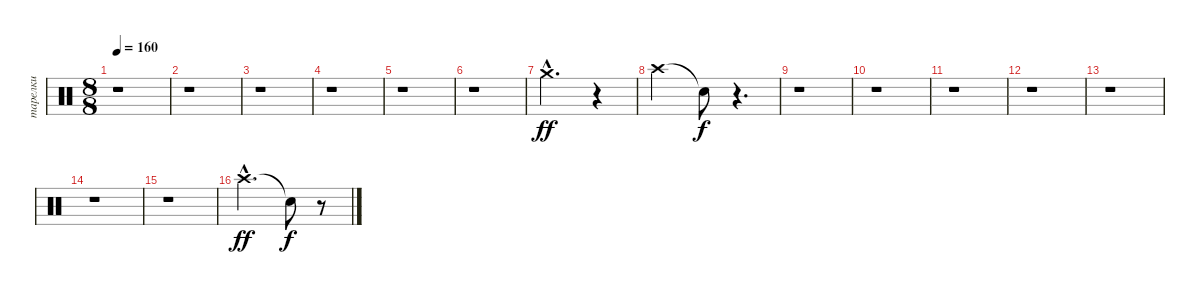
\track ("тарелки" "тарелки") {instrument percussion}
\staff {score}
\articulation defaults
\ts (8 8)
\tempo 160
\clef neutral
\ks c
r.1{dy f} |
r.1 |
r.1 |
r.1 |
r.1 |
r.1 |
"Crash medium (hit)"{hac}.2{d dy ff} r.4 |
"Crash high (hit)".2 "Snare (hit)"{t}.8{dy f} r.4{d} |
r.1 |
r.1 |
r.1 |
r.1 |
r.1 |
r.1 |
r.1 |
"Crash high (hit)"{hac}.2{d dy ff} "Snare (hit)"{t}.8{dy f} r.8
